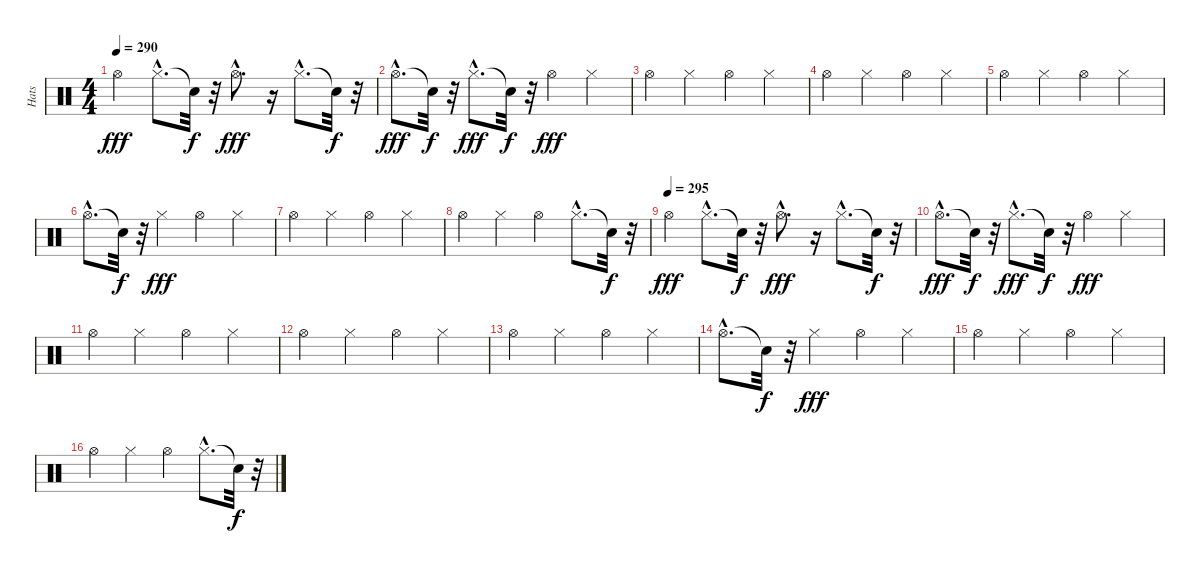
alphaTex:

\track ("Hats" "Hats") {instrument percussion}
\staff {score}
\articulation defaults
\ts (4 4)
\tempo 290
\clef neutral
\ks c "Hi-Hat (open)".4{dy fff} "Hi-Hat (closed)"{hac}.8{d} "Snare (hit)"{t}.32{dy f}
r.32 "Hi-Hat (open)"{hac}.8{d dy fff} r.16 "Hi-Hat (closed)"{hac}.8{d} "Snare (hit)"{t}.32{dy f} r.32 |
"Hi-Hat (open)"{hac}.8{d dy fff} "Snare (hit)"{t}.32{dy f} r.32 "Hi-Hat (closed)"{hac}.8{d dy fff} "Snare (hit)"{t}.32{dy f} r.32 "Hi-Hat (open)".4{dy fff} "Hi-Hat (closed)".4 |
"Hi-Hat (open)".4 "Hi-Hat (closed)".4 "Hi-Hat (open)".4 "Hi-Hat (closed)".4 |
"Hi-Hat (open)".4 "Hi-Hat (closed)".4 "Hi-Hat (open)".4 "Hi-Hat (closed)".4 |
"Hi-Hat (open)".4 "Hi-Hat (closed)".4 "Hi-Hat (open)".4 "Hi-Hat (closed)".4 |
"Hi-Hat (open)"{hac}.8{d} "Snare (hit)"{t}.32{dy f} r.32 "Hi-Hat (closed)".4{dy fff} "Hi-Hat (open)".4 "Hi-Hat (closed)".4 |
"Hi-Hat (open)".4 "Hi-Hat (closed)".4 "Hi-Hat (open)".4 "Hi-Hat (closed)".4 |
"Hi-Hat (open)".4 "Hi-Hat (closed)".4 "Hi-Hat (open)".4 "Hi-Hat (closed)"{hac}.8{d} "Snare (hit)"{t}.32{dy f} r.32 |
\tempo (295)
"Hi-Hat (open)".4{dy fff} "Hi-Hat (closed)"{hac}.8{d} "Snare (hit)"{t}.32{dy f} r.32 "Hi-Hat (open)"{hac}.8{d dy fff} r.16 "Hi-Hat (closed)"{hac}.8{d} "Snare (hit)"{t}.32{dy f} r.32 |
"Hi-Hat (open)"{hac}.8{d dy fff} "Snare (hit)"{t}.32{dy f} r.32 "Hi-Hat (closed)"{hac}.8{d dy fff} "Snare (hit)"{t}.32{dy f} r.32 "Hi-Hat (open)".4{dy fff} "Hi-Hat (closed)".4 |
"Hi-Hat (open)".4 "Hi-Hat (closed)".4 "Hi-Hat (open)".4 "Hi-Hat (closed)".4 |
"Hi-Hat (open)".4 "Hi-Hat (closed)".4 "Hi-Hat (open)".4 "Hi-Hat (closed)".4 |
"Hi-Hat (open)".4 "Hi-Hat (closed)".4 "Hi-Hat (open)".4 "Hi-Hat (closed)".4 |
"Hi-Hat (open)"{hac}.8{d} "Snare (hit)"{t}.32{dy f} r.32 "Hi-Hat (closed)".4{dy fff} "Hi-Hat (open)".4 "Hi-Hat (closed)".4 |
"Hi-Hat (open)".4 "Hi-Hat (closed)".4 "Hi-Hat (open)".4 "Hi-Hat (closed)".4 |
"Hi-Hat (open)".4 "Hi-Hat (closed)".4 "Hi-Hat (open)".4 "Hi-Hat (closed)"{hac}.8{d} "Snare (hit)"{t}.32{dy f} r.32
